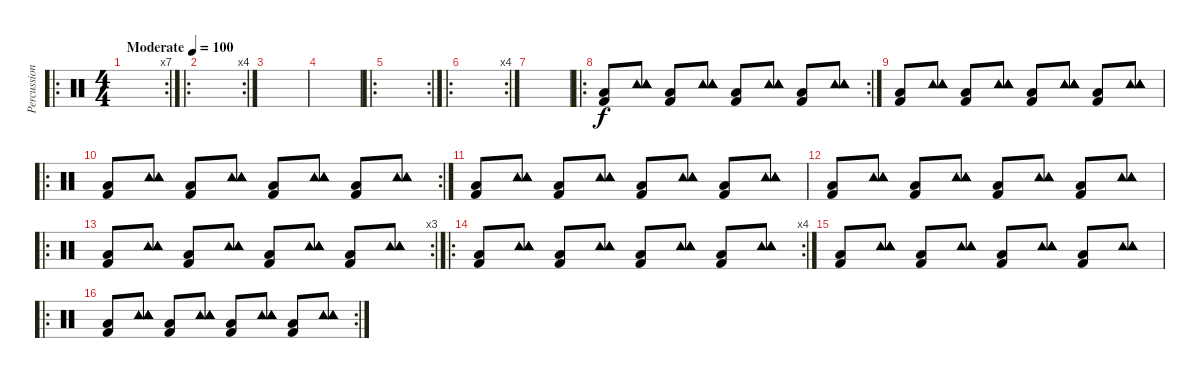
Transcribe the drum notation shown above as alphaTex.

\track ("Percussion" "Percussion") {instrument percussion}
\staff {score}
\articulation defaults
\ro
\rc 7
\ts (4 4)
\tempo (100 "Moderate")
\clef neutral
\ks c
|
\ro
\rc 4
|
|
|
\ro
\rc 2
|
\ro
\rc 4
|
|
\ro
\rc 2
("Kick (hit) 2" "Low Floor Tom (hit)").8 ("Tambourine (hit)" "Tambourine (hit)" "Tambourine (hit)" "Tambourine (hit)").8 ("Kick (hit) 2" "Low Floor Tom (hit)").8 ("Tambourine (hit)" "Tambourine (hit)" "Tambourine (hit)" "Tambourine (hit)").8 ("Kick (hit) 2" "Low Floor Tom (hit)").8 ("Tambourine (hit)" "Tambourine (hit)" "Tambourine (hit)" "Tambourine (hit)").8 ("Kick (hit) 2" "Low Floor Tom (hit)").8 ("Tambourine (hit)" "Tambourine (hit)" "Tambourine (hit)" "Tambourine (hit)").8 |
("Kick (hit) 2" "Low Floor Tom (hit)").8 ("Tambourine (hit)" "Tambourine (hit)" "Tambourine (hit)" "Tambourine (hit)").8 ("Kick (hit) 2" "Low Floor Tom (hit)").8 ("Tambourine (hit)" "Tambourine (hit)" "Tambourine (hit)" "Tambourine (hit)").8 ("Kick (hit) 2" "Low Floor Tom (hit)").8 ("Tambourine (hit)" "Tambourine (hit)" "Tambourine (hit)" "Tambourine (hit)").8 ("Kick (hit) 2" "Low Floor Tom (hit)").8 ("Tambourine (hit)" "Tambourine (hit)" "Tambourine (hit)" "Tambourine (hit)").8 |
\ro
\rc 2
("Kick (hit) 2" "Low Floor Tom (hit)").8 ("Tambourine (hit)" "Tambourine (hit)" "Tambourine (hit)" "Tambourine (hit)").8 ("Kick (hit) 2" "Low Floor Tom (hit)").8 ("Tambourine (hit)" "Tambourine (hit)" "Tambourine (hit)" "Tambourine (hit)").8 ("Kick (hit) 2" "Low Floor Tom (hit)").8 ("Tambourine (hit)" "Tambourine (hit)" "Tambourine (hit)" "Tambourine (hit)").8 ("Kick (hit) 2" "Low Floor Tom (hit)").8 ("Tambourine (hit)" "Tambourine (hit)" "Tambourine (hit)" "Tambourine (hit)").8 |
("Kick (hit) 2" "Low Floor Tom (hit)").8 ("Tambourine (hit)" "Tambourine (hit)" "Tambourine (hit)" "Tambourine (hit)").8 ("Kick (hit) 2" "Low Floor Tom (hit)").8 ("Tambourine (hit)" "Tambourine (hit)" "Tambourine (hit)" "Tambourine (hit)").8 ("Kick (hit) 2" "Low Floor Tom (hit)").8 ("Tambourine (hit)" "Tambourine (hit)" "Tambourine (hit)" "Tambourine (hit)").8 ("Kick (hit) 2" "Low Floor Tom (hit)").8 ("Tambourine (hit)" "Tambourine (hit)" "Tambourine (hit)" "Tambourine (hit)").8 |
("Kick (hit) 2" "Low Floor Tom (hit)").8 ("Tambourine (hit)" "Tambourine (hit)" "Tambourine (hit)" "Tambourine (hit)").8 ("Kick (hit) 2" "Low Floor Tom (hit)").8 ("Tambourine (hit)" "Tambourine (hit)" "Tambourine (hit)" "Tambourine (hit)").8 ("Kick (hit) 2" "Low Floor Tom (hit)").8 ("Tambourine (hit)" "Tambourine (hit)" "Tambourine (hit)" "Tambourine (hit)").8 ("Kick (hit) 2" "Low Floor Tom (hit)").8 ("Tambourine (hit)" "Tambourine (hit)" "Tambourine (hit)" "Tambourine (hit)").8 |
\ro
\rc 3
("Kick (hit) 2" "Low Floor Tom (hit)").8 ("Tambourine (hit)" "Tambourine (hit)" "Tambourine (hit)" "Tambourine (hit)").8 ("Kick (hit) 2" "Low Floor Tom (hit)").8 ("Tambourine (hit)" "Tambourine (hit)" "Tambourine (hit)" "Tambourine (hit)").8 ("Kick (hit) 2" "Low Floor Tom (hit)").8 ("Tambourine (hit)" "Tambourine (hit)" "Tambourine (hit)" "Tambourine (hit)").8 ("Kick (hit) 2" "Low Floor Tom (hit)").8 ("Tambourine (hit)" "Tambourine (hit)" "Tambourine (hit)" "Tambourine (hit)").8 |
\ro
\rc 4
("Kick (hit) 2" "Low Floor Tom (hit)").8 ("Tambourine (hit)" "Tambourine (hit)" "Tambourine (hit)" "Tambourine (hit)").8 ("Kick (hit) 2" "Low Floor Tom (hit)").8 ("Tambourine (hit)" "Tambourine (hit)" "Tambourine (hit)" "Tambourine (hit)").8 ("Kick (hit) 2" "Low Floor Tom (hit)").8 ("Tambourine (hit)" "Tambourine (hit)" "Tambourine (hit)" "Tambourine (hit)").8 ("Kick (hit) 2" "Low Floor Tom (hit)").8 ("Tambourine (hit)" "Tambourine (hit)" "Tambourine (hit)" "Tambourine (hit)").8 |
("Kick (hit) 2" "Low Floor Tom (hit)").8 ("Tambourine (hit)" "Tambourine (hit)" "Tambourine (hit)" "Tambourine (hit)").8 ("Kick (hit) 2" "Low Floor Tom (hit)").8 ("Tambourine (hit)" "Tambourine (hit)" "Tambourine (hit)" "Tambourine (hit)").8 ("Kick (hit) 2" "Low Floor Tom (hit)").8 ("Tambourine (hit)" "Tambourine (hit)" "Tambourine (hit)" "Tambourine (hit)").8 ("Kick (hit) 2" "Low Floor Tom (hit)").8 ("Tambourine (hit)" "Tambourine (hit)" "Tambourine (hit)" "Tambourine (hit)").8 |
\ro
\rc 2
("Kick (hit) 2" "Low Floor Tom (hit)").8 ("Tambourine (hit)" "Tambourine (hit)" "Tambourine (hit)" "Tambourine (hit)").8 ("Kick (hit) 2" "Low Floor Tom (hit)").8 ("Tambourine (hit)" "Tambourine (hit)" "Tambourine (hit)" "Tambourine (hit)").8 ("Kick (hit) 2" "Low Floor Tom (hit)").8 ("Tambourine (hit)" "Tambourine (hit)" "Tambourine (hit)" "Tambourine (hit)").8 ("Kick (hit) 2" "Low Floor Tom (hit)").8 ("Tambourine (hit)" "Tambourine (hit)" "Tambourine (hit)" "Tambourine (hit)").8
